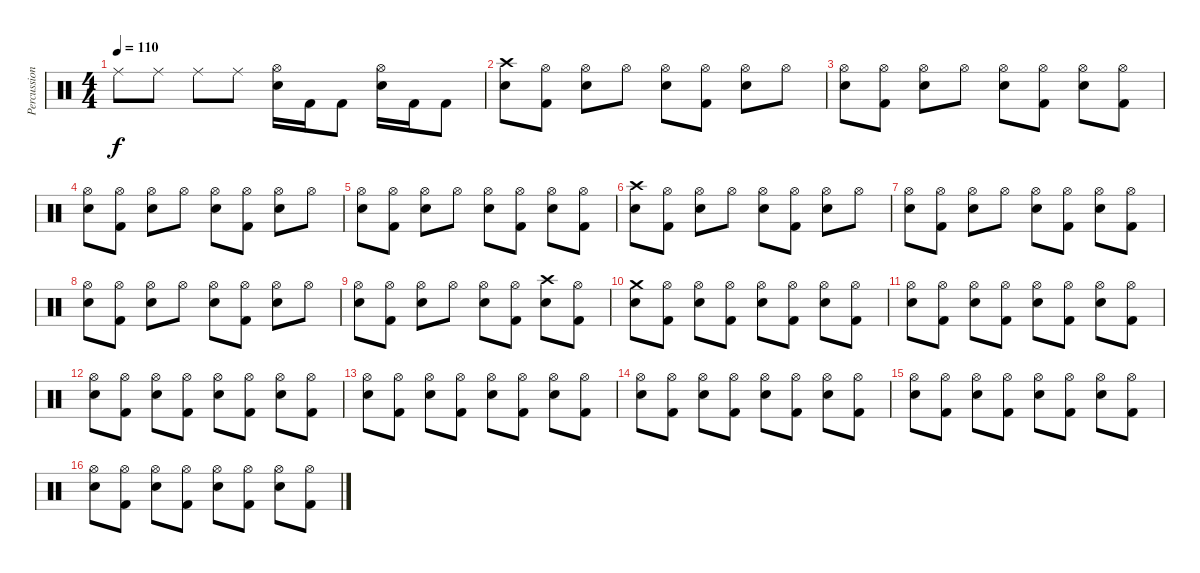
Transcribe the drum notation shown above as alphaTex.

\track ("Percussion" "Percussion") {instrument percussion}
\staff {score}
\articulation defaults
\ts (4 4)
\tempo 110
\clef neutral
\ks c "Ride (middle)".8{dy f} "Ride (middle)".8 "Ride (middle)".8 "Ride (middle)".8
("Hi-Hat (open)" "Snare (hit) 2").16 "Kick (hit) 2".16 "Kick (hit) 2".8 ("Hi-Hat (open)" "Snare (hit) 2").16 "Kick (hit) 2".16 "Kick (hit) 2".8 |
("Crash high (hit)" "Snare (hit) 2").8 ("Hi-Hat (open)" "Kick (hit) 2").8 ("Hi-Hat (open)" "Snare (hit) 2").8 "Hi-Hat (open)".8 ("Hi-Hat (open)" "Snare (hit) 2").8 ("Hi-Hat (open)" "Kick (hit) 2").8 ("Hi-Hat (open)" "Snare (hit) 2").8 "Hi-Hat (open)".8 |
("Hi-Hat (open)" "Snare (hit) 2").8 ("Hi-Hat (open)" "Kick (hit) 2").8 ("Hi-Hat (open)" "Snare (hit) 2").8 "Hi-Hat (open)".8 ("Hi-Hat (open)" "Snare (hit) 2").8 ("Hi-Hat (open)" "Kick (hit) 2").8 ("Hi-Hat (open)" "Snare (hit) 2").8 ("Hi-Hat (open)" "Kick (hit) 2").8 |
("Hi-Hat (open)" "Snare (hit) 2").8 ("Hi-Hat (open)" "Kick (hit) 2").8 ("Hi-Hat (open)" "Snare (hit) 2").8 "Hi-Hat (open)".8 ("Hi-Hat (open)" "Snare (hit) 2").8 ("Hi-Hat (open)" "Kick (hit) 2").8 ("Hi-Hat (open)" "Snare (hit) 2").8 "Hi-Hat (open)".8 |
("Hi-Hat (open)" "Snare (hit) 2").8 ("Hi-Hat (open)" "Kick (hit) 2").8 ("Hi-Hat (open)" "Snare (hit) 2").8 "Hi-Hat (open)".8 ("Hi-Hat (open)" "Snare (hit) 2").8 ("Hi-Hat (open)" "Kick (hit) 2").8 ("Hi-Hat (open)" "Snare (hit) 2").8 ("Hi-Hat (open)" "Kick (hit) 2").8 |
("Crash high (hit)" "Snare (hit) 2").8 ("Hi-Hat (open)" "Kick (hit) 2").8 ("Hi-Hat (open)" "Snare (hit) 2").8 "Hi-Hat (open)".8 ("Hi-Hat (open)" "Snare (hit) 2").8 ("Hi-Hat (open)" "Kick (hit) 2").8 ("Hi-Hat (open)" "Snare (hit) 2").8 "Hi-Hat (open)".8 |
("Hi-Hat (open)" "Snare (hit) 2").8 ("Hi-Hat (open)" "Kick (hit) 2").8 ("Hi-Hat (open)" "Snare (hit) 2").8 "Hi-Hat (open)".8 ("Hi-Hat (open)" "Snare (hit) 2").8 ("Hi-Hat (open)" "Kick (hit) 2").8 ("Hi-Hat (open)" "Snare (hit) 2").8 ("Hi-Hat (open)" "Kick (hit) 2").8 |
("Hi-Hat (open)" "Snare (hit) 2").8 ("Hi-Hat (open)" "Kick (hit) 2").8 ("Hi-Hat (open)" "Snare (hit) 2").8 "Hi-Hat (open)".8 ("Hi-Hat (open)" "Snare (hit) 2").8 ("Hi-Hat (open)" "Kick (hit) 2").8 ("Hi-Hat (open)" "Snare (hit) 2").8 "Hi-Hat (open)".8 |
("Hi-Hat (open)" "Snare (hit) 2").8 ("Hi-Hat (open)" "Kick (hit) 2").8 ("Hi-Hat (open)" "Snare (hit) 2").8 "Hi-Hat (open)".8 ("Hi-Hat (open)" "Snare (hit) 2").8 ("Hi-Hat (open)" "Kick (hit) 2").8 ("Crash high (hit)" "Snare (hit) 2").8 ("Hi-Hat (open)" "Kick (hit) 2").8 |
("Crash medium (hit)" "Snare (hit) 2").8 ("Hi-Hat (open)" "Kick (hit) 2").8 ("Hi-Hat (open)" "Snare (hit) 2").8 ("Hi-Hat (open)" "Kick (hit) 2").8 ("Hi-Hat (open)" "Snare (hit) 2").8 ("Hi-Hat (open)" "Kick (hit) 2").8 ("Hi-Hat (open)" "Snare (hit) 2").8 ("Hi-Hat (open)" "Kick (hit) 2").8 |
("Hi-Hat (open)" "Snare (hit) 2").8 ("Hi-Hat (open)" "Kick (hit) 2").8 ("Hi-Hat (open)" "Snare (hit) 2").8 ("Hi-Hat (open)" "Kick (hit) 2").8 ("Hi-Hat (open)" "Snare (hit) 2").8 ("Hi-Hat (open)" "Kick (hit) 2").8 ("Hi-Hat (open)" "Snare (hit) 2").8 ("Hi-Hat (open)" "Kick (hit) 2").8 |
("Hi-Hat (open)" "Snare (hit) 2").8 ("Hi-Hat (open)" "Kick (hit) 2").8 ("Hi-Hat (open)" "Snare (hit) 2").8 ("Hi-Hat (open)" "Kick (hit) 2").8 ("Hi-Hat (open)" "Snare (hit) 2").8 ("Hi-Hat (open)" "Kick (hit) 2").8 ("Hi-Hat (open)" "Snare (hit) 2").8 ("Hi-Hat (open)" "Kick (hit) 2").8 |
("Hi-Hat (open)" "Snare (hit) 2").8 ("Hi-Hat (open)" "Kick (hit) 2").8 ("Hi-Hat (open)" "Snare (hit) 2").8 ("Hi-Hat (open)" "Kick (hit) 2").8 ("Hi-Hat (open)" "Snare (hit) 2").8 ("Hi-Hat (open)" "Kick (hit) 2").8 ("Hi-Hat (open)" "Snare (hit) 2").8 ("Hi-Hat (open)" "Kick (hit) 2").8 |
("Hi-Hat (open)" "Snare (hit) 2").8 ("Hi-Hat (open)" "Kick (hit) 2").8 ("Hi-Hat (open)" "Snare (hit) 2").8 ("Hi-Hat (open)" "Kick (hit) 2").8 ("Hi-Hat (open)" "Snare (hit) 2").8 ("Hi-Hat (open)" "Kick (hit) 2").8 ("Hi-Hat (open)" "Snare (hit) 2").8 ("Hi-Hat (open)" "Kick (hit) 2").8 |
("Hi-Hat (open)" "Snare (hit) 2").8 ("Hi-Hat (open)" "Kick (hit) 2").8 ("Hi-Hat (open)" "Snare (hit) 2").8 ("Hi-Hat (open)" "Kick (hit) 2").8 ("Hi-Hat (open)" "Snare (hit) 2").8 ("Hi-Hat (open)" "Kick (hit) 2").8 ("Hi-Hat (open)" "Snare (hit) 2").8 ("Hi-Hat (open)" "Kick (hit) 2").8 |
("Hi-Hat (open)" "Snare (hit) 2").8 ("Hi-Hat (open)" "Kick (hit) 2").8 ("Hi-Hat (open)" "Snare (hit) 2").8 ("Hi-Hat (open)" "Kick (hit) 2").8 ("Hi-Hat (open)" "Snare (hit) 2").8 ("Hi-Hat (open)" "Kick (hit) 2").8 ("Hi-Hat (open)" "Snare (hit) 2").8 ("Hi-Hat (open)" "Kick (hit) 2").8
